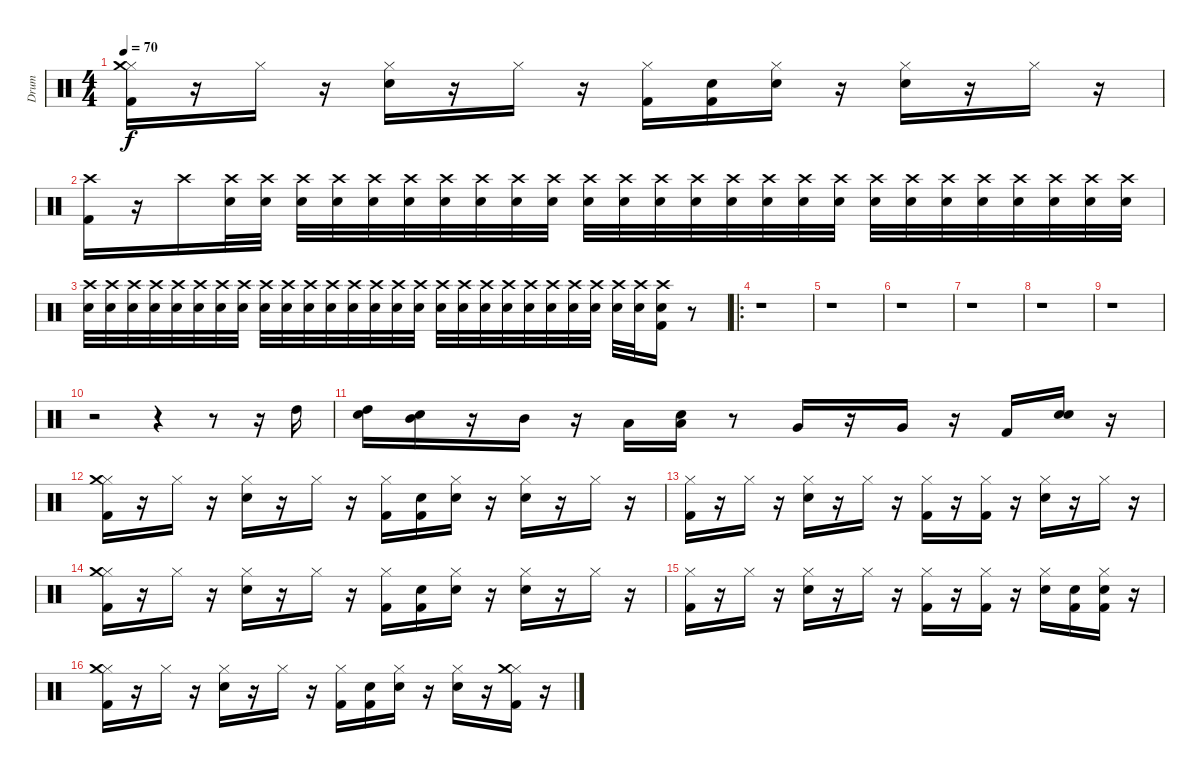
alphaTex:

\track ("Drum" "Drum") {instrument percussion}
\staff {score}
\articulation defaults
\ts (4 4)
\tempo 70
\clef neutral
\ks c
("Kick (hit) 2" "Hi-Hat (closed)" "Crash medium (hit)").16{dy f} r.16 "Hi-Hat (closed)".16 r.16 ("Hi-Hat (closed)" "Snare (hit) 2").16 r.16 "Hi-Hat (closed)".16 r.16 ("Kick (hit) 2" "Hi-Hat (closed)").16 ("Snare (hit)" "Kick (hit) 2").16 ("Snare (hit)" "Hi-Hat (closed)").16 r.16 ("Hi-Hat (closed)" "Snare (hit) 2").16 r.16 "Hi-Hat (closed)".16 r.16 |
("Kick (hit) 2" "Crash high (hit)").16 r.16 "Crash high (hit)".16 ("Snare (hit)" "Crash high (hit)").32 ("Snare (hit)" "Crash high (hit)").32 ("Snare (hit)" "Crash high (hit)").32 ("Snare (hit)" "Crash high (hit)").32 ("Snare (hit)" "Crash high (hit)").32 ("Snare (hit)" "Crash high (hit)").32 ("Snare (hit)" "Crash high (hit)").32 ("Snare (hit)" "Crash high (hit)").32 ("Snare (hit)" "Crash high (hit)").32 ("Snare (hit)" "Crash high (hit)").32 ("Snare (hit)" "Crash high (hit)").32 ("Snare (hit)" "Crash high (hit)").32 ("Snare (hit)" "Crash high (hit)").32 ("Snare (hit)" "Crash high (hit)").32 ("Snare (hit)" "Crash high (hit)").32 ("Snare (hit)" "Crash high (hit)").32 ("Snare (hit)" "Crash high (hit)").32 ("Snare (hit)" "Crash high (hit)").32 ("Snare (hit)" "Crash high (hit)").32 ("Snare (hit)" "Crash high (hit)").32 ("Snare (hit)" "Crash high (hit)").32 ("Snare (hit)" "Crash high (hit)").32 ("Snare (hit)" "Crash high (hit)").32 ("Snare (hit)" "Crash high (hit)").32 ("Snare (hit)" "Crash high (hit)").32 ("Snare (hit)" "Crash high (hit)").32 |
("Snare (hit)" "Crash high (hit)").32 ("Snare (hit)" "Crash high (hit)").32 ("Snare (hit)" "Crash high (hit)").32 ("Snare (hit)" "Crash high (hit)").32 ("Snare (hit)" "Crash high (hit)").32 ("Snare (hit)" "Crash high (hit)").32 ("Snare (hit)" "Crash high (hit)").32 ("Snare (hit)" "Crash high (hit)").32 ("Snare (hit)" "Crash high (hit)").32 ("Snare (hit)" "Crash high (hit)").32 ("Snare (hit)" "Crash high (hit)").32 ("Snare (hit)" "Crash high (hit)").32 ("Snare (hit)" "Crash high (hit)").32 ("Snare (hit)" "Crash high (hit)").32 ("Snare (hit)" "Crash high (hit)").32 ("Snare (hit)" "Crash high (hit)").32 ("Snare (hit)" "Crash high (hit)").32 ("Snare (hit)" "Crash high (hit)").32 ("Snare (hit)" "Crash high (hit)").32 ("Snare (hit)" "Crash high (hit)").32 ("Snare (hit)" "Crash high (hit)").32 ("Snare (hit)" "Crash high (hit)").32 ("Snare (hit)" "Crash high (hit)").32 ("Snare (hit)" "Crash high (hit)").32 ("Snare (hit)" "Crash high (hit)").32 ("Snare (hit)" "Crash high (hit)").32 ("Snare (hit)" "Kick (hit) 2" "Crash high (hit)").16 r.8 |
\ro
r.1 |
r.1 |
r.1 |
r.1 |
r.1 |
r.1 |
r.2 r.4 r.8 r.16 "High Tom (hit)".16 |
("Snare (hit)" "High Tom (hit)").16 ("Snare (hit)" "Mid Tom (hit)").16 r.16 "Mid Tom (hit)".16 r.16 "Low Tom (hit)".16 ("Snare (hit)" "Low Tom (hit)").16 r.8 "Very Low Tom (hit)".16 r.16 "Very Low Tom (hit)".16 r.16 "Kick (hit) 2".16 ("Snare (hit)" "Snare (hit) 2").16 r.16 |
("Kick (hit) 2" "Hi-Hat (closed)" "Crash medium (hit)").16 r.16 "Hi-Hat (closed)".16 r.16 ("Hi-Hat (closed)" "Snare (hit) 2").16 r.16 "Hi-Hat (closed)".16 r.16 ("Kick (hit) 2" "Hi-Hat (closed)").16 ("Snare (hit)" "Kick (hit) 2").16 ("Snare (hit)" "Hi-Hat (closed)").16 r.16 ("Hi-Hat (closed)" "Snare (hit) 2").16 r.16 "Hi-Hat (closed)".16 r.16 |
("Kick (hit) 2" "Hi-Hat (closed)").16 r.16 "Hi-Hat (closed)".16 r.16 ("Hi-Hat (closed)" "Snare (hit) 2").16 r.16 "Hi-Hat (closed)".16 r.16 ("Kick (hit) 2" "Hi-Hat (closed)").16 r.16 ("Kick (hit) 2" "Hi-Hat (closed)").16 r.16 ("Hi-Hat (closed)" "Snare (hit) 2").16 r.16 "Hi-Hat (closed)".16 r.16 |
("Kick (hit) 2" "Hi-Hat (closed)" "Crash medium (hit)").16 r.16 "Hi-Hat (closed)".16 r.16 ("Hi-Hat (closed)" "Snare (hit) 2").16 r.16 "Hi-Hat (closed)".16 r.16 ("Kick (hit) 2" "Hi-Hat (closed)").16 ("Snare (hit)" "Kick (hit) 2").16 ("Snare (hit)" "Hi-Hat (closed)").16 r.16 ("Hi-Hat (closed)" "Snare (hit) 2").16 r.16 "Hi-Hat (closed)".16 r.16 |
("Kick (hit) 2" "Hi-Hat (closed)").16 r.16 "Hi-Hat (closed)".16 r.16 ("Hi-Hat (closed)" "Snare (hit) 2").16 r.16 "Hi-Hat (closed)".16 r.16 ("Kick (hit) 2" "Hi-Hat (closed)").16 r.16 ("Kick (hit) 2" "Hi-Hat (closed)").16 r.16 ("Hi-Hat (closed)" "Snare (hit) 2").16 ("Snare (hit)" "Kick (hit) 2").16 ("Snare (hit)" "Kick (hit) 2" "Hi-Hat (closed)").16 r.16 |
("Kick (hit) 2" "Hi-Hat (closed)" "Crash medium (hit)").16 r.16 "Hi-Hat (closed)".16 r.16 ("Hi-Hat (closed)" "Snare (hit) 2").16 r.16 "Hi-Hat (closed)".16 r.16 ("Kick (hit) 2" "Hi-Hat (closed)").16 ("Snare (hit)" "Kick (hit) 2").16 ("Snare (hit)" "Hi-Hat (closed)").16 r.16 ("Hi-Hat (closed)" "Snare (hit) 2").16 r.16 ("Kick (hit) 2" "Hi-Hat (closed)" "Crash medium (hit)").16 r.16
